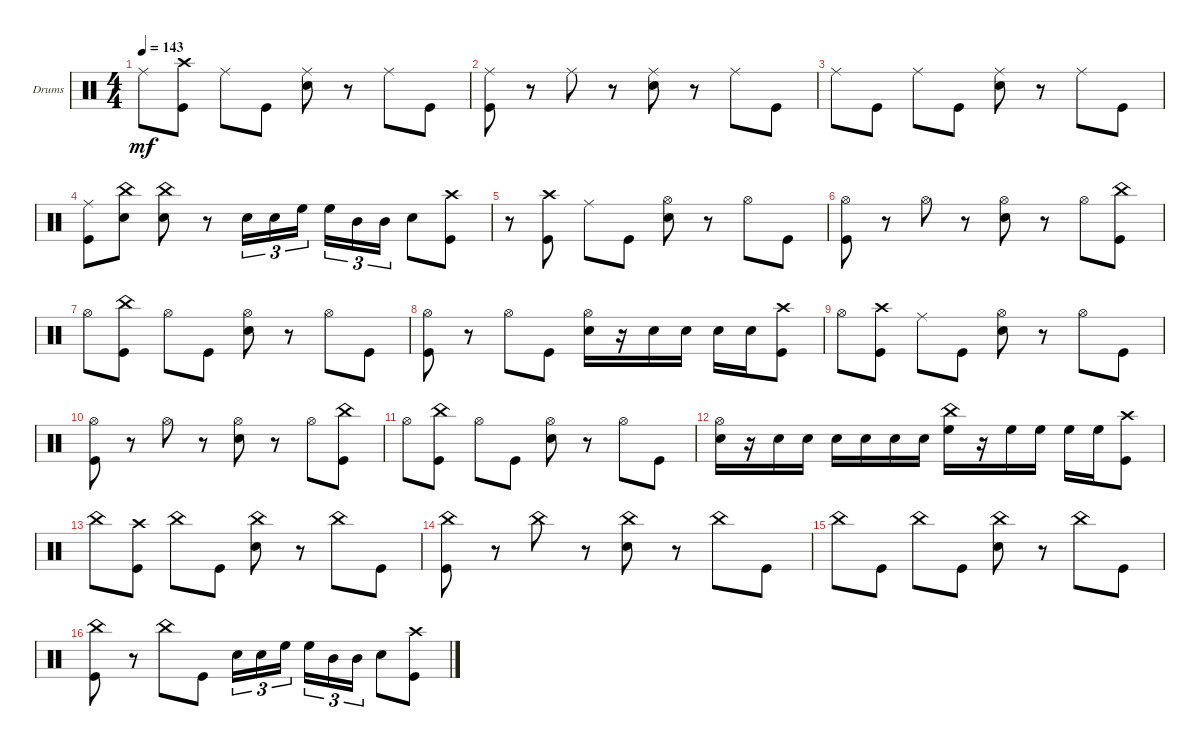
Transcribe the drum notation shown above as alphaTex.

\bracketExtendMode groupsimilarinstruments
\firstSystemTrackNameOrientation horizontal
\otherSystemsTrackNameOrientation horizontal
\track ("death drumz" "Drums") {instrument percussion}
\staff {score}
\articulation defaults
\ts (4 4)
\tempo 143
\clef neutral
\ks c "Ride (middle)".8{dy mf}
("Kick (hit)" "Crash high (hit)").8 "Ride (middle)".8 "Kick (hit)".8 ("Snare (hit) 2" "Ride (middle)").8 r.8 "Ride (middle)".8 "Kick (hit)".8 |
("Kick (hit)" "Ride (middle)").8 r.8 "Ride (middle)".8 r.8 ("Snare (hit) 2" "Ride (middle)").8 r.8 "Ride (middle)".8 "Kick (hit)".8 |
"Ride (middle)".8 "Kick (hit)".8 "Ride (middle)".8 "Kick (hit)".8 ("Snare (hit) 2" "Ride (middle)").8 r.8 "Ride (middle)".8 "Kick (hit)".8 |
("Kick (hit)" "Ride (middle)").8 ("Snare (hit) 2" "China (hit)").8 ("Snare (hit) 2" "China (hit)").8 r.8 "Snare (hit) 2".16{tu (3 2)} "Snare (hit) 2".16{tu (3 2)} "High Floor Tom (hit)".16{tu (3 2)} "High Floor Tom (hit)".16{tu (3 2)} "Mid Tom (hit)".16{tu (3 2)} "Mid Tom (hit)".16{tu (3 2)} "Snare (hit) 2".8 ("Kick (hit)" "Crash high (hit)").8 |
r.8 ("Kick (hit)" "Crash high (hit)").8 "Ride (middle)".8 "Kick (hit)".8 ("Snare (hit) 2" "Hi-Hat (open)").8 r.8 "Hi-Hat (open)".8 "Kick (hit)".8 |
("Kick (hit)" "Hi-Hat (open)").8 r.8 "Hi-Hat (open)".8 r.8 ("Snare (hit) 2" "Hi-Hat (open)").8 r.8 "Hi-Hat (open)".8 ("Kick (hit)" "China (hit)").8 |
"Hi-Hat (open)".8 ("Kick (hit)" "China (hit)").8 "Hi-Hat (open)".8 "Kick (hit)".8 ("Snare (hit) 2" "Hi-Hat (open)").8 r.8 "Hi-Hat (open)".8 "Kick (hit)".8 |
("Kick (hit)" "Hi-Hat (open)").8 r.8 "Hi-Hat (open)".8 "Kick (hit)".8 ("Snare (hit) 2" "Hi-Hat (open)").16 r.16 "Snare (hit) 2".16 "Snare (hit) 2".16 "Snare (hit) 2".16 "Snare (hit) 2".16 ("Kick (hit)" "Crash high (hit)").8 |
"Hi-Hat (open)".8 ("Kick (hit)" "Crash high (hit)").8 "Ride (middle)".8 "Kick (hit)".8 ("Snare (hit) 2" "Hi-Hat (open)").8 r.8 "Hi-Hat (open)".8 "Kick (hit)".8 |
("Kick (hit)" "Hi-Hat (open)").8 r.8 "Hi-Hat (open)".8 r.8 ("Snare (hit) 2" "Hi-Hat (open)").8 r.8 "Hi-Hat (open)".8 ("Kick (hit)" "China (hit)").8 |
"Hi-Hat (open)".8 ("Kick (hit)" "China (hit)").8 "Hi-Hat (open)".8 "Kick (hit)".8 ("Snare (hit) 2" "Hi-Hat (open)").8 r.8 "Hi-Hat (open)".8 "Kick (hit)".8 |
("Snare (hit) 2" "Hi-Hat (open)").16 r.16 "Snare (hit) 2".16 "Snare (hit) 2".16 "Snare (hit) 2".16 "Snare (hit) 2".16 "Snare (hit) 2".16 "Snare (hit) 2".16 ("High Floor Tom (hit)" "China (hit)").16 r.16 "High Floor Tom (hit)".16 "High Floor Tom (hit)".16 "High Floor Tom (hit)".16 "High Floor Tom (hit)".16 ("Kick (hit)" "Crash high (hit)").8 |
"China (hit)".8 ("Kick (hit)" "Crash high (hit)").8 "China (hit)".8 "Kick (hit)".8 ("Snare (hit) 2" "China (hit)").8 r.8 "China (hit)".8 "Kick (hit)".8 |
("Kick (hit)" "China (hit)").8 r.8 "China (hit)".8 r.8 ("Snare (hit) 2" "China (hit)").8 r.8 "China (hit)".8 "Kick (hit)".8 |
"China (hit)".8 "Kick (hit)".8 "China (hit)".8 "Kick (hit)".8 ("Snare (hit) 2" "China (hit)").8 r.8 "China (hit)".8 "Kick (hit)".8 |
("Kick (hit)" "China (hit)").8 r.8 "China (hit)".8 "Kick (hit)".8 "Snare (hit) 2".16{tu (3 2)} "Snare (hit) 2".16{tu (3 2)} "High Floor Tom (hit)".16{tu (3 2)} "High Floor Tom (hit)".16{tu (3 2)} "Mid Tom (hit)".16{tu (3 2)} "Mid Tom (hit)".16{tu (3 2)} "Snare (hit) 2".8 ("Kick (hit)" "Crash high (hit)").8
